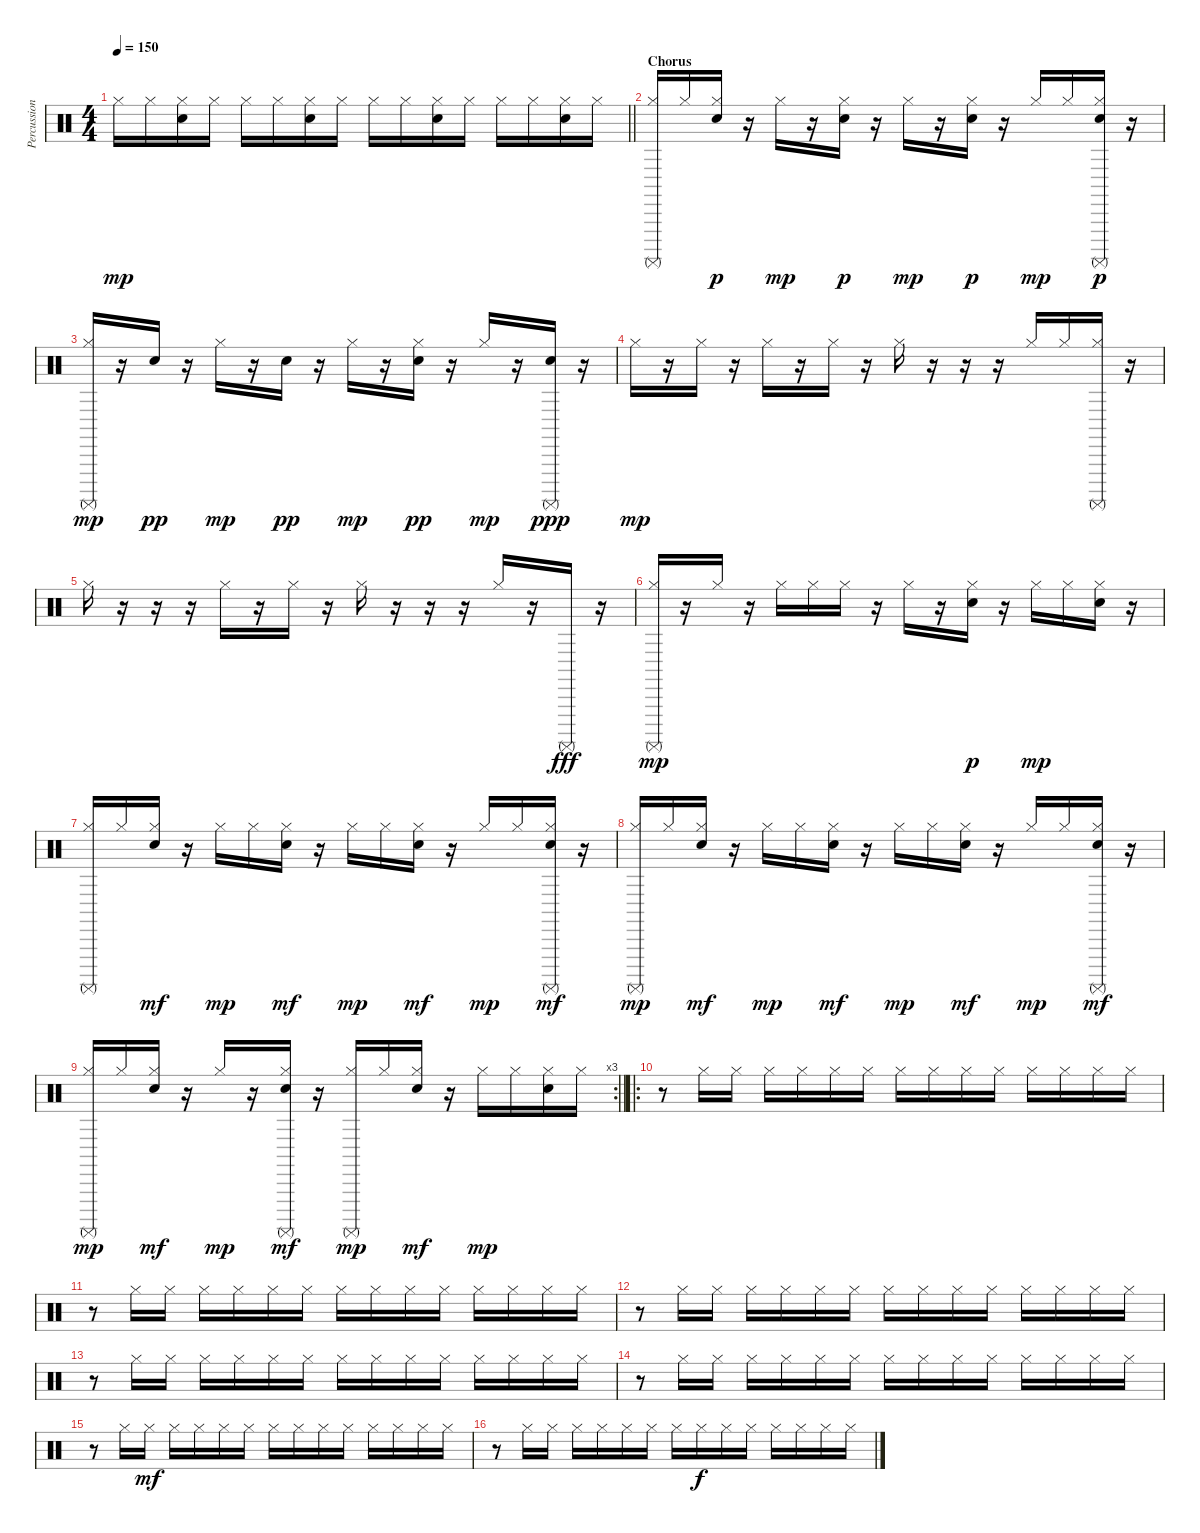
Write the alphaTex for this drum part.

\track ("Percussions" "Percussion") {instrument percussion}
\staff {score}
\articulation defaults
\ts (4 4)
\tempo 150
\clef neutral
\barLineRight lightlight
\ks c "Hi-Hat (closed)".16{dy mp} "Hi-Hat (closed)".16
("Hi-Hat (closed)" "Snare (hit) 2").16 "Hi-Hat (closed)".16 "Hi-Hat (closed)".16 "Hi-Hat (closed)".16 ("Hi-Hat (closed)" "Snare (hit) 2").16 "Hi-Hat (closed)".16 "Hi-Hat (closed)".16 "Hi-Hat (closed)".16 ("Hi-Hat (closed)" "Snare (hit) 2").16 "Hi-Hat (closed)".16 "Hi-Hat (closed)".16 "Hi-Hat (closed)".16 ("Hi-Hat (closed)" "Snare (hit) 2").16 "Hi-Hat (closed)".16 |
\section ("" "Chorus")
("Surdo (mute)" "Hi-Hat (closed)").16 "Hi-Hat (closed)".16 ("Hi-Hat (closed)" "Snare (hit) 2").16{dy p} r.16 "Hi-Hat (closed)".16{dy mp} r.16 ("Hi-Hat (closed)" "Snare (hit) 2").16{dy p} r.16 "Hi-Hat (closed)".16{dy mp} r.16 ("Hi-Hat (closed)" "Snare (hit) 2").16{dy p} r.16 "Hi-Hat (closed)".16{dy mp} "Hi-Hat (closed)".16 ("Surdo (mute)" "Hi-Hat (closed)" "Snare (hit) 2").16{dy p} r.16 |
("Surdo (mute)" "Hi-Hat (closed)").16{dy mp} r.16 "Snare (hit) 2".16{dy pp} r.16 "Hi-Hat (closed)".16{dy mp} r.16 "Snare (hit) 2".16{dy pp} r.16 "Hi-Hat (closed)".16{dy mp} r.16 ("Hi-Hat (closed)" "Snare (hit) 2").16{dy pp} r.16 "Hi-Hat (closed)".16{dy mp} r.16 ("Surdo (mute)" "Snare (hit) 2").16{dy ppp} r.16 |
"Hi-Hat (closed)".16{dy mp} r.16 "Hi-Hat (closed)".16 r.16 "Hi-Hat (closed)".16 r.16 "Hi-Hat (closed)".16 r.16 "Hi-Hat (closed)".16 r.16 r.16 r.16 "Hi-Hat (closed)".16 "Hi-Hat (closed)".16 ("Surdo (mute)" "Hi-Hat (closed)").16 r.16 |
"Hi-Hat (closed)".16 r.16 r.16 r.16 "Hi-Hat (closed)".16 r.16 "Hi-Hat (closed)".16 r.16 "Hi-Hat (closed)".16 r.16 r.16 r.16 "Hi-Hat (closed)".16 r.16 "Surdo (mute)".16{dy fff} r.16 |
("Surdo (mute)" "Hi-Hat (closed)").16{dy mp} r.16 "Hi-Hat (closed)".16 r.16 "Hi-Hat (closed)".16 "Hi-Hat (closed)".16 "Hi-Hat (closed)".16 r.16 "Hi-Hat (closed)".16 r.16 ("Hi-Hat (closed)" "Snare (hit) 2").16{dy p} r.16 "Hi-Hat (closed)".16{dy mp} "Hi-Hat (closed)".16 ("Hi-Hat (closed)" "Snare (hit) 2").16 r.16 |
("Surdo (mute)" "Hi-Hat (closed)").16 "Hi-Hat (closed)".16 ("Hi-Hat (closed)" "Snare (hit) 2").16{dy mf} r.16 "Hi-Hat (closed)".16{dy mp} "Hi-Hat (closed)".16 ("Hi-Hat (closed)" "Snare (hit) 2").16{dy mf} r.16 "Hi-Hat (closed)".16{dy mp} "Hi-Hat (closed)".16 ("Hi-Hat (closed)" "Snare (hit) 2").16{dy mf} r.16 "Hi-Hat (closed)".16{dy mp} "Hi-Hat (closed)".16 ("Surdo (mute)" "Hi-Hat (closed)" "Snare (hit) 2").16{dy mf} r.16 |
("Surdo (mute)" "Hi-Hat (closed)").16{dy mp} "Hi-Hat (closed)".16 ("Hi-Hat (closed)" "Snare (hit) 2").16{dy mf} r.16 "Hi-Hat (closed)".16{dy mp} "Hi-Hat (closed)".16 ("Hi-Hat (closed)" "Snare (hit) 2").16{dy mf} r.16 "Hi-Hat (closed)".16{dy mp} "Hi-Hat (closed)".16 ("Hi-Hat (closed)" "Snare (hit) 2").16{dy mf} r.16 "Hi-Hat (closed)".16{dy mp} "Hi-Hat (closed)".16 ("Surdo (mute)" "Hi-Hat (closed)" "Snare (hit) 2").16{dy mf} r.16 |
\rc 3
\barLineRight lightlight
("Surdo (mute)" "Hi-Hat (closed)").16{dy mp} "Hi-Hat (closed)".16 ("Hi-Hat (closed)" "Snare (hit) 2").16{dy mf} r.16 "Hi-Hat (closed)".16{dy mp} r.16 ("Surdo (mute)" "Hi-Hat (closed)" "Snare (hit) 2").16{dy mf} r.16 ("Surdo (mute)" "Hi-Hat (closed)").16{dy mp} "Hi-Hat (closed)".16 ("Hi-Hat (closed)" "Snare (hit) 2").16{dy mf} r.16 "Hi-Hat (closed)".16{dy mp} "Hi-Hat (closed)".16 ("Hi-Hat (closed)" "Snare (hit) 2").16 "Hi-Hat (closed)".16 |
\ro
\section ("" "")
r.8 "Hi-Hat (closed)".16 "Hi-Hat (closed)".16 "Hi-Hat (closed)".16 "Hi-Hat (closed)".16 "Hi-Hat (closed)".16 "Hi-Hat (closed)".16 "Hi-Hat (closed)".16 "Hi-Hat (closed)".16 "Hi-Hat (closed)".16 "Hi-Hat (closed)".16 "Hi-Hat (closed)".16 "Hi-Hat (closed)".16 "Hi-Hat (closed)".16 "Hi-Hat (closed)".16 |
r.8 "Hi-Hat (closed)".16 "Hi-Hat (closed)".16 "Hi-Hat (closed)".16 "Hi-Hat (closed)".16 "Hi-Hat (closed)".16 "Hi-Hat (closed)".16 "Hi-Hat (closed)".16 "Hi-Hat (closed)".16 "Hi-Hat (closed)".16 "Hi-Hat (closed)".16 "Hi-Hat (closed)".16 "Hi-Hat (closed)".16 "Hi-Hat (closed)".16 "Hi-Hat (closed)".16 |
r.8 "Hi-Hat (closed)".16 "Hi-Hat (closed)".16 "Hi-Hat (closed)".16 "Hi-Hat (closed)".16 "Hi-Hat (closed)".16 "Hi-Hat (closed)".16 "Hi-Hat (closed)".16 "Hi-Hat (closed)".16 "Hi-Hat (closed)".16 "Hi-Hat (closed)".16 "Hi-Hat (closed)".16 "Hi-Hat (closed)".16 "Hi-Hat (closed)".16 "Hi-Hat (closed)".16 |
r.8 "Hi-Hat (closed)".16 "Hi-Hat (closed)".16 "Hi-Hat (closed)".16 "Hi-Hat (closed)".16 "Hi-Hat (closed)".16 "Hi-Hat (closed)".16 "Hi-Hat (closed)".16 "Hi-Hat (closed)".16 "Hi-Hat (closed)".16 "Hi-Hat (closed)".16 "Hi-Hat (closed)".16 "Hi-Hat (closed)".16 "Hi-Hat (closed)".16 "Hi-Hat (closed)".16 |
r.8 "Hi-Hat (closed)".16 "Hi-Hat (closed)".16 "Hi-Hat (closed)".16 "Hi-Hat (closed)".16 "Hi-Hat (closed)".16 "Hi-Hat (closed)".16 "Hi-Hat (closed)".16 "Hi-Hat (closed)".16 "Hi-Hat (closed)".16 "Hi-Hat (closed)".16 "Hi-Hat (closed)".16 "Hi-Hat (closed)".16 "Hi-Hat (closed)".16 "Hi-Hat (closed)".16 |
r.8 "Hi-Hat (closed)".16 "Hi-Hat (closed)".16{dy mf} "Hi-Hat (closed)".16 "Hi-Hat (closed)".16 "Hi-Hat (closed)".16 "Hi-Hat (closed)".16 "Hi-Hat (closed)".16 "Hi-Hat (closed)".16 "Hi-Hat (closed)".16 "Hi-Hat (closed)".16 "Hi-Hat (closed)".16 "Hi-Hat (closed)".16 "Hi-Hat (closed)".16 "Hi-Hat (closed)".16 |
r.8 "Hi-Hat (closed)".16 "Hi-Hat (closed)".16 "Hi-Hat (closed)".16 "Hi-Hat (closed)".16 "Hi-Hat (closed)".16 "Hi-Hat (closed)".16 "Hi-Hat (closed)".16 "Hi-Hat (closed)".16{dy f} "Hi-Hat (closed)".16 "Hi-Hat (closed)".16 "Hi-Hat (closed)".16 "Hi-Hat (closed)".16 "Hi-Hat (closed)".16 "Hi-Hat (closed)".16
